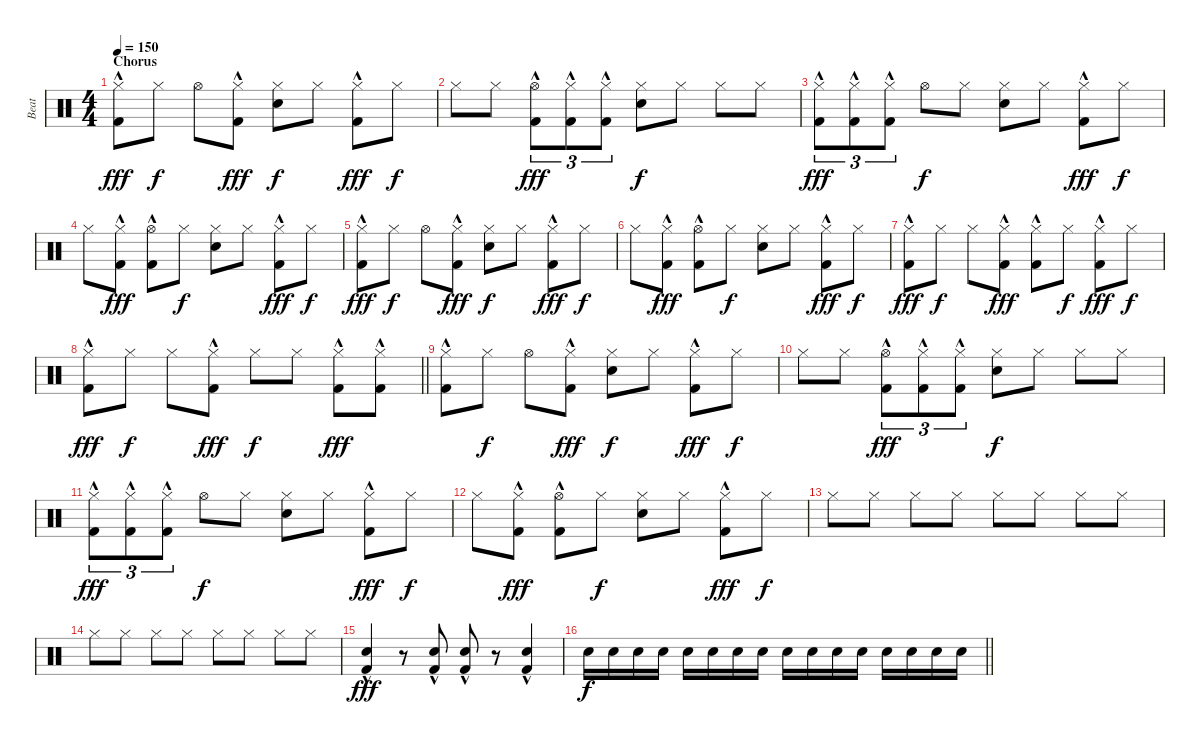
\track ("Beat" "Beat") {instrument percussion}
\staff {score}
\articulation defaults
\ts (4 4)
\section ("" "Chorus")
\tempo 150
\clef neutral
\ks c
("Hi-Hat (closed)" "Kick (hit) 2"{hac}).8{dy fff} "Hi-Hat (closed)".8{dy f} "Hi-Hat (open)".8 ("Hi-Hat (closed)" "Kick (hit) 2"{hac}).8{dy fff} ("Hi-Hat (closed)" "Hand Clap (hit)").8{dy f} "Hi-Hat (closed)".8 ("Hi-Hat (closed)" "Kick (hit) 2"{hac}).8{dy fff} "Hi-Hat (closed)".8{dy f} |
"Hi-Hat (closed)".8 "Hi-Hat (closed)".8 ("Hi-Hat (open)" "Kick (hit) 2"{hac}).8{tu (3 2) dy fff} ("Hi-Hat (closed)" "Kick (hit) 2"{hac}).8{tu (3 2)} ("Hi-Hat (closed)" "Kick (hit) 2"{hac}).8{tu (3 2)} ("Hi-Hat (closed)" "Hand Clap (hit)").8{dy f} "Hi-Hat (closed)".8 "Hi-Hat (closed)".8 "Hi-Hat (closed)".8 |
("Hi-Hat (closed)" "Kick (hit) 2"{hac}).8{tu (3 2) dy fff} ("Hi-Hat (closed)" "Kick (hit) 2"{hac}).8{tu (3 2)} ("Hi-Hat (closed)" "Kick (hit) 2"{hac}).8{tu (3 2)} "Hi-Hat (open)".8{dy f} "Hi-Hat (closed)".8 ("Hi-Hat (closed)" "Hand Clap (hit)").8 "Hi-Hat (closed)".8 ("Hi-Hat (closed)" "Kick (hit) 2"{hac}).8{dy fff} "Hi-Hat (closed)".8{dy f} |
"Hi-Hat (closed)".8 ("Hi-Hat (closed)" "Kick (hit) 2"{hac}).8{dy fff} ("Hi-Hat (open)" "Kick (hit) 2"{hac}).8 "Hi-Hat (closed)".8{dy f} ("Hi-Hat (closed)" "Hand Clap (hit)").8 "Hi-Hat (closed)".8 ("Hi-Hat (closed)" "Kick (hit) 2"{hac}).8{dy fff} "Hi-Hat (closed)".8{dy f} |
("Hi-Hat (closed)" "Kick (hit) 2"{hac}).8{dy fff} "Hi-Hat (closed)".8{dy f} "Hi-Hat (open)".8 ("Hi-Hat (closed)" "Kick (hit) 2"{hac}).8{dy fff} ("Hi-Hat (closed)" "Hand Clap (hit)").8{dy f} "Hi-Hat (closed)".8 ("Hi-Hat (closed)" "Kick (hit) 2"{hac}).8{dy fff} "Hi-Hat (closed)".8{dy f} |
"Hi-Hat (closed)".8 ("Hi-Hat (closed)" "Kick (hit) 2"{hac}).8{dy fff} ("Hi-Hat (open)" "Kick (hit) 2"{hac}).8 "Hi-Hat (closed)".8{dy f} ("Hi-Hat (closed)" "Hand Clap (hit)").8 "Hi-Hat (closed)".8 ("Hi-Hat (closed)" "Kick (hit) 2"{hac}).8{dy fff} "Hi-Hat (closed)".8{dy f} |
("Hi-Hat (closed)" "Kick (hit) 2"{hac}).8{dy fff} "Hi-Hat (closed)".8{dy f} "Hi-Hat (closed)".8 ("Hi-Hat (closed)" "Kick (hit) 2"{hac}).8{dy fff} ("Hi-Hat (closed)" "Kick (hit) 2"{hac}).8 "Hi-Hat (closed)".8{dy f} ("Hi-Hat (closed)" "Kick (hit) 2"{hac}).8{dy fff} "Hi-Hat (closed)".8{dy f} |
\barLineRight lightlight
("Hi-Hat (closed)" "Kick (hit) 2"{hac}).8{dy fff} "Hi-Hat (closed)".8{dy f} "Hi-Hat (closed)".8 ("Hi-Hat (closed)" "Kick (hit) 2"{hac}).8{dy fff} "Hi-Hat (closed)".8{dy f} "Hi-Hat (closed)".8 ("Hi-Hat (closed)" "Kick (hit) 2"{hac}).8{dy fff} ("Hi-Hat (closed)" "Kick (hit) 2"{hac}).8 |
("Hi-Hat (closed)" "Kick (hit) 2"{hac}).8 "Hi-Hat (closed)".8{dy f} "Hi-Hat (open)".8 ("Hi-Hat (closed)" "Kick (hit) 2"{hac}).8{dy fff} ("Hi-Hat (closed)" "Hand Clap (hit)").8{dy f} "Hi-Hat (closed)".8 ("Hi-Hat (closed)" "Kick (hit) 2"{hac}).8{dy fff} "Hi-Hat (closed)".8{dy f} |
"Hi-Hat (closed)".8 "Hi-Hat (closed)".8 ("Hi-Hat (open)" "Kick (hit) 2"{hac}).8{tu (3 2) dy fff} ("Hi-Hat (closed)" "Kick (hit) 2"{hac}).8{tu (3 2)} ("Hi-Hat (closed)" "Kick (hit) 2"{hac}).8{tu (3 2)} ("Hi-Hat (closed)" "Hand Clap (hit)").8{dy f} "Hi-Hat (closed)".8 "Hi-Hat (closed)".8 "Hi-Hat (closed)".8 |
("Hi-Hat (closed)" "Kick (hit) 2"{hac}).8{tu (3 2) dy fff} ("Hi-Hat (closed)" "Kick (hit) 2"{hac}).8{tu (3 2)} ("Hi-Hat (closed)" "Kick (hit) 2"{hac}).8{tu (3 2)} "Hi-Hat (open)".8{dy f} "Hi-Hat (closed)".8 ("Hi-Hat (closed)" "Hand Clap (hit)").8 "Hi-Hat (closed)".8 ("Hi-Hat (closed)" "Kick (hit) 2"{hac}).8{dy fff} "Hi-Hat (closed)".8{dy f} |
"Hi-Hat (closed)".8 ("Hi-Hat (closed)" "Kick (hit) 2"{hac}).8{dy fff} ("Hi-Hat (open)" "Kick (hit) 2"{hac}).8 "Hi-Hat (closed)".8{dy f} ("Hi-Hat (closed)" "Hand Clap (hit)").8 "Hi-Hat (closed)".8 ("Hi-Hat (closed)" "Kick (hit) 2"{hac}).8{dy fff} "Hi-Hat (closed)".8{dy f} |
"Hi-Hat (closed)".8 "Hi-Hat (closed)".8 "Hi-Hat (closed)".8 "Hi-Hat (closed)".8 "Hi-Hat (closed)".8 "Hi-Hat (closed)".8 "Hi-Hat (closed)".8 "Hi-Hat (closed)".8 |
"Hi-Hat (closed)".8 "Hi-Hat (closed)".8 "Hi-Hat (closed)".8 "Hi-Hat (closed)".8 "Hi-Hat (closed)".8 "Hi-Hat (closed)".8 "Hi-Hat (closed)".8 "Hi-Hat (closed)".8 |
("Snare (hit) 2" "Kick (hit) 2"{hac}).4{dy fff} r.8 ("Snare (hit) 2" "Kick (hit) 2"{hac}).8 ("Snare (hit) 2" "Kick (hit) 2"{hac}).8 r.8 ("Snare (hit) 2" "Kick (hit) 2"{hac}).4 |
\barLineRight lightlight "Snare (hit) 2".16{dy f} "Snare (hit) 2".16 "Snare (hit) 2".16 "Snare (hit) 2".16 "Snare (hit) 2".16 "Snare (hit) 2".16 "Snare (hit) 2".16 "Snare (hit) 2".16 "Snare (hit) 2".16 "Snare (hit) 2".16 "Snare (hit) 2".16 "Snare (hit) 2".16 "Snare (hit) 2".16 "Snare (hit) 2".16 "Snare (hit) 2".16 "Snare (hit) 2".16
